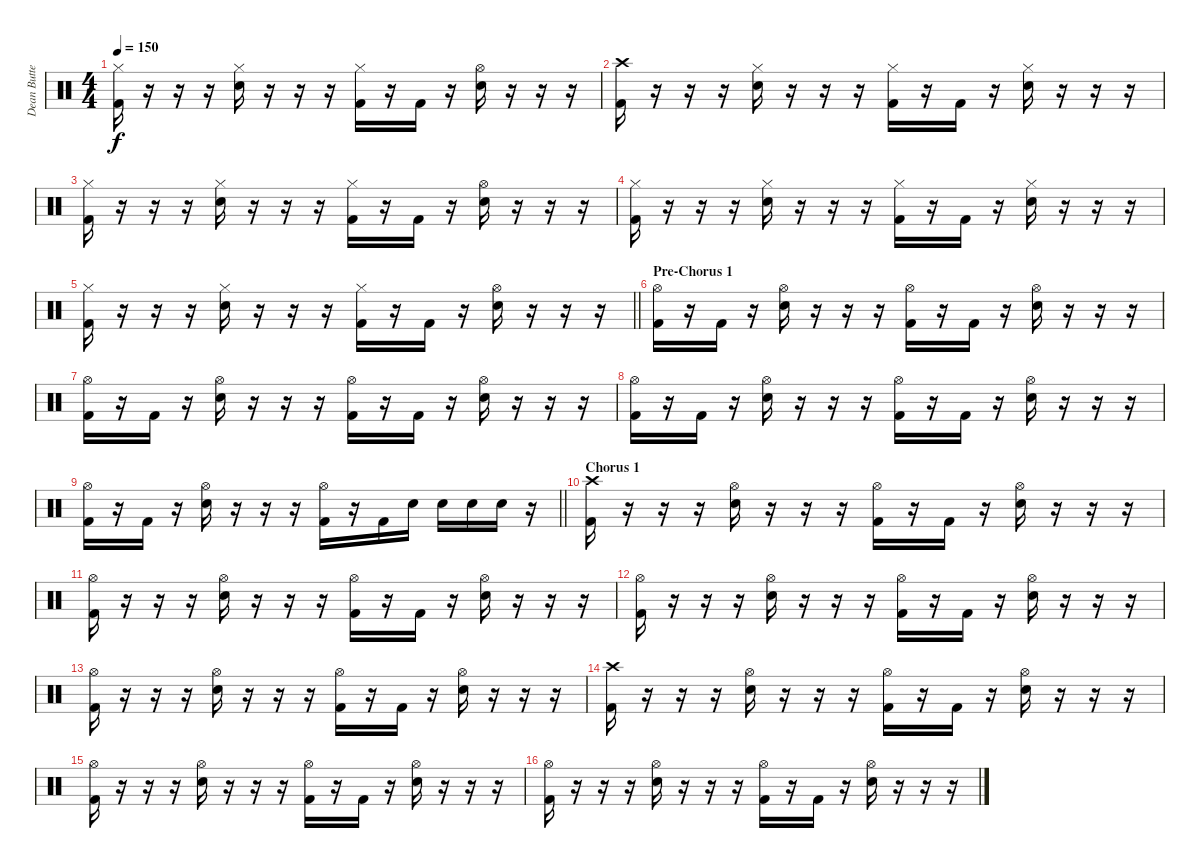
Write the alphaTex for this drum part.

\track ("Dean Butterworth" "Dean Butte") {instrument percussion}
\staff {score}
\articulation defaults
\ts (4 4)
\tempo 150
\clef neutral
\ks c
("Hi-Hat (closed)" "Kick (hit) 2").16{dy f} r.16 r.16 r.16 ("Hi-Hat (closed)" "Snare (hit) 2").16 r.16 r.16 r.16 ("Hi-Hat (closed)" "Kick (hit) 2").16 r.16 "Kick (hit) 2".16 r.16 ("Hi-Hat (open)" "Snare (hit) 2").16 r.16 r.16 r.16 |
("Crash high (hit)" "Kick (hit) 2").16 r.16 r.16 r.16 ("Hi-Hat (closed)" "Snare (hit) 2").16 r.16 r.16 r.16 ("Hi-Hat (closed)" "Kick (hit) 2").16 r.16 "Kick (hit) 2".16 r.16 ("Hi-Hat (closed)" "Snare (hit) 2").16 r.16 r.16 r.16 |
("Hi-Hat (closed)" "Kick (hit) 2").16 r.16 r.16 r.16 ("Hi-Hat (closed)" "Snare (hit) 2").16 r.16 r.16 r.16 ("Hi-Hat (closed)" "Kick (hit) 2").16 r.16 "Kick (hit) 2".16 r.16 ("Hi-Hat (open)" "Snare (hit) 2").16 r.16 r.16 r.16 |
("Hi-Hat (closed)" "Kick (hit) 2").16 r.16 r.16 r.16 ("Hi-Hat (closed)" "Snare (hit) 2").16 r.16 r.16 r.16 ("Hi-Hat (closed)" "Kick (hit) 2").16 r.16 "Kick (hit) 2".16 r.16 ("Hi-Hat (closed)" "Snare (hit) 2").16 r.16 r.16 r.16 |
\barLineRight lightlight
("Hi-Hat (closed)" "Kick (hit) 2").16 r.16 r.16 r.16 ("Hi-Hat (closed)" "Snare (hit) 2").16 r.16 r.16 r.16 ("Hi-Hat (closed)" "Kick (hit) 2").16 r.16 "Kick (hit) 2".16 r.16 ("Hi-Hat (open)" "Snare (hit) 2").16 r.16 r.16 r.16 |
\section ("" "Pre-Chorus 1")
("Hi-Hat (open)" "Kick (hit) 2").16 r.16 "Kick (hit) 2".16 r.16 ("Hi-Hat (open)" "Snare (hit) 2").16 r.16 r.16 r.16 ("Hi-Hat (open)" "Kick (hit) 2").16 r.16 "Kick (hit) 2".16 r.16 ("Hi-Hat (open)" "Snare (hit) 2").16 r.16 r.16 r.16 |
("Hi-Hat (open)" "Kick (hit) 2").16 r.16 "Kick (hit) 2".16 r.16 ("Hi-Hat (open)" "Snare (hit) 2").16 r.16 r.16 r.16 ("Hi-Hat (open)" "Kick (hit) 2").16 r.16 "Kick (hit) 2".16 r.16 ("Hi-Hat (open)" "Snare (hit) 2").16 r.16 r.16 r.16 |
("Hi-Hat (open)" "Kick (hit) 2").16 r.16 "Kick (hit) 2".16 r.16 ("Hi-Hat (open)" "Snare (hit) 2").16 r.16 r.16 r.16 ("Hi-Hat (open)" "Kick (hit) 2").16 r.16 "Kick (hit) 2".16 r.16 ("Hi-Hat (open)" "Snare (hit) 2").16 r.16 r.16 r.16 |
\barLineRight lightlight
("Hi-Hat (open)" "Kick (hit) 2").16 r.16 "Kick (hit) 2".16 r.16 ("Hi-Hat (open)" "Snare (hit) 2").16 r.16 r.16 r.16 ("Hi-Hat (open)" "Kick (hit) 2").16 r.16 "Kick (hit) 2".16 "Snare (hit) 2".16 "Snare (hit) 2".16 "Snare (hit) 2".16 "Snare (hit) 2".16 r.16 |
\section ("" "Chorus 1")
("Crash high (hit)" "Kick (hit) 2").16 r.16 r.16 r.16 ("Hi-Hat (open)" "Electric Snare (hit)").16 r.16 r.16 r.16 ("Hi-Hat (open)" "Kick (hit) 2").16 r.16 "Kick (hit) 2".16 r.16 ("Hi-Hat (open)" "Electric Snare (hit)").16 r.16 r.16 r.16 |
("Hi-Hat (open)" "Kick (hit) 2").16 r.16 r.16 r.16 ("Hi-Hat (open)" "Electric Snare (hit)").16 r.16 r.16 r.16 ("Hi-Hat (open)" "Kick (hit) 2").16 r.16 "Kick (hit) 2".16 r.16 ("Hi-Hat (open)" "Electric Snare (hit)").16 r.16 r.16 r.16 |
("Hi-Hat (open)" "Kick (hit) 2").16 r.16 r.16 r.16 ("Hi-Hat (open)" "Electric Snare (hit)").16 r.16 r.16 r.16 ("Hi-Hat (open)" "Kick (hit) 2").16 r.16 "Kick (hit) 2".16 r.16 ("Hi-Hat (open)" "Electric Snare (hit)").16 r.16 r.16 r.16 |
("Hi-Hat (open)" "Kick (hit) 2").16 r.16 r.16 r.16 ("Hi-Hat (open)" "Electric Snare (hit)").16 r.16 r.16 r.16 ("Hi-Hat (open)" "Kick (hit) 2").16 r.16 "Kick (hit) 2".16 r.16 ("Hi-Hat (open)" "Electric Snare (hit)").16 r.16 r.16 r.16 |
("Crash high (hit)" "Kick (hit) 2").16 r.16 r.16 r.16 ("Hi-Hat (open)" "Electric Snare (hit)").16 r.16 r.16 r.16 ("Hi-Hat (open)" "Kick (hit) 2").16 r.16 "Kick (hit) 2".16 r.16 ("Hi-Hat (open)" "Electric Snare (hit)").16 r.16 r.16 r.16 |
("Hi-Hat (open)" "Kick (hit) 2").16 r.16 r.16 r.16 ("Hi-Hat (open)" "Electric Snare (hit)").16 r.16 r.16 r.16 ("Hi-Hat (open)" "Kick (hit) 2").16 r.16 "Kick (hit) 2".16 r.16 ("Hi-Hat (open)" "Electric Snare (hit)").16 r.16 r.16 r.16 |
("Hi-Hat (open)" "Kick (hit) 2").16 r.16 r.16 r.16 ("Hi-Hat (open)" "Electric Snare (hit)").16 r.16 r.16 r.16 ("Hi-Hat (open)" "Kick (hit) 2").16 r.16 "Kick (hit) 2".16 r.16 ("Hi-Hat (open)" "Electric Snare (hit)").16 r.16 r.16 r.16
